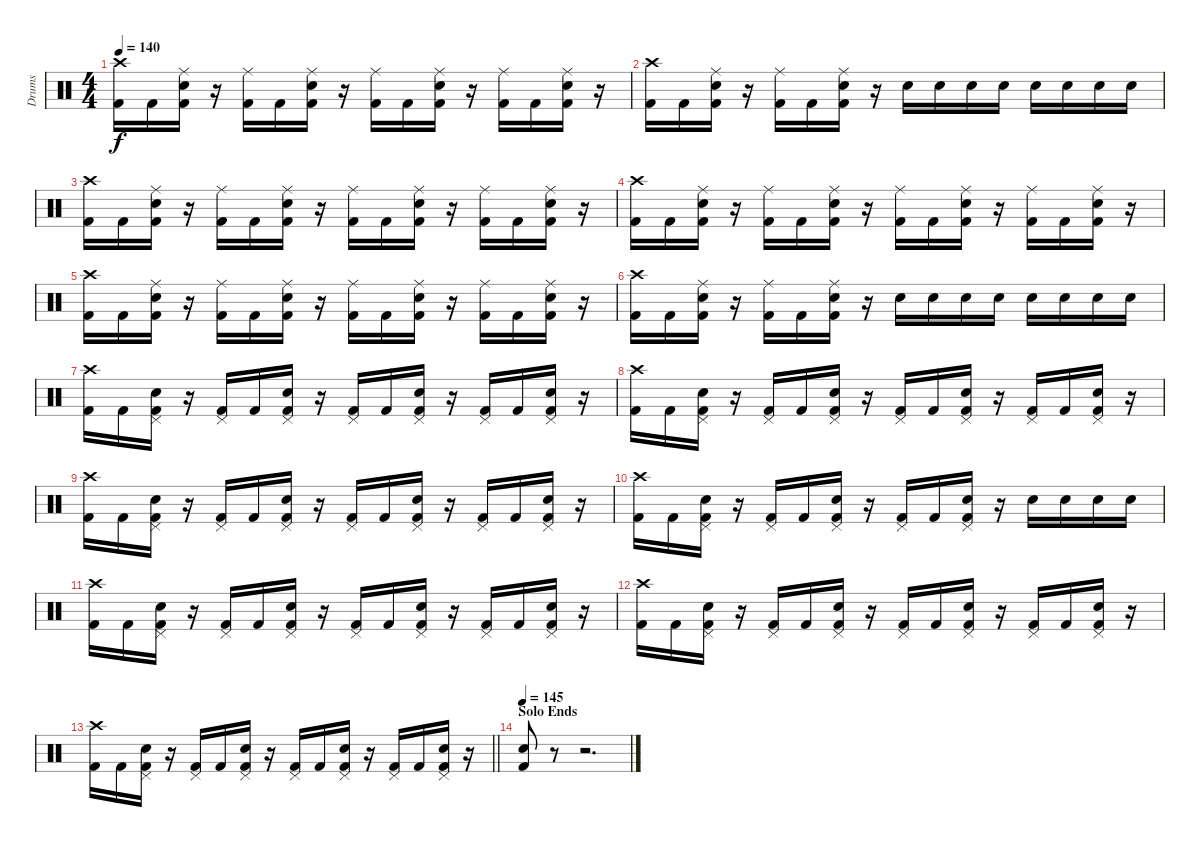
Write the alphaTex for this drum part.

\track ("Drums" "Drums") {instrument percussion}
\staff {score}
\articulation defaults
\ts (4 4)
\tempo 140
\clef neutral
\ks c
("Crash high (hit)" "Kick (hit) 2").16{dy f} "Kick (hit) 2".16 ("Ride (middle)" "Snare (hit) 2" "Kick (hit) 2").16 r.16 ("Ride (middle)" "Kick (hit) 2").16 "Kick (hit) 2".16 ("Ride (middle)" "Snare (hit) 2" "Kick (hit) 2").16 r.16 ("Ride (middle)" "Kick (hit) 2").16 "Kick (hit) 2".16 ("Ride (middle)" "Snare (hit) 2" "Kick (hit) 2").16 r.16 ("Ride (middle)" "Kick (hit) 2").16 "Kick (hit) 2".16 ("Ride (middle)" "Snare (hit) 2" "Kick (hit) 2").16 r.16 |
("Crash high (hit)" "Kick (hit) 2").16 "Kick (hit) 2".16 ("Ride (middle)" "Snare (hit) 2" "Kick (hit) 2").16 r.16 ("Ride (middle)" "Kick (hit) 2").16 "Kick (hit) 2".16 ("Ride (middle)" "Snare (hit) 2" "Kick (hit) 2").16 r.16 "Snare (hit) 2".16 "Snare (hit) 2".16 "Snare (hit) 2".16 "Snare (hit) 2".16 "Snare (hit) 2".16 "Snare (hit) 2".16 "Snare (hit) 2".16 "Snare (hit) 2".16 |
("Crash high (hit)" "Kick (hit) 2").16 "Kick (hit) 2".16 ("Ride (middle)" "Snare (hit) 2" "Kick (hit) 2").16 r.16 ("Ride (middle)" "Kick (hit) 2").16 "Kick (hit) 2".16 ("Ride (middle)" "Snare (hit) 2" "Kick (hit) 2").16 r.16 ("Ride (middle)" "Kick (hit) 2").16 "Kick (hit) 2".16 ("Ride (middle)" "Snare (hit) 2" "Kick (hit) 2").16 r.16 ("Ride (middle)" "Kick (hit) 2").16 "Kick (hit) 2".16 ("Ride (middle)" "Snare (hit) 2" "Kick (hit) 2").16 r.16 |
("Crash high (hit)" "Kick (hit) 2").16 "Kick (hit) 2".16 ("Ride (middle)" "Snare (hit) 2" "Kick (hit) 2").16 r.16 ("Ride (middle)" "Kick (hit) 2").16 "Kick (hit) 2".16 ("Ride (middle)" "Snare (hit) 2" "Kick (hit) 2").16 r.16 ("Ride (middle)" "Kick (hit) 2").16 "Kick (hit) 2".16 ("Ride (middle)" "Snare (hit) 2" "Kick (hit) 2").16 r.16 ("Ride (middle)" "Kick (hit) 2").16 "Kick (hit) 2".16 ("Ride (middle)" "Snare (hit) 2" "Kick (hit) 2").16 r.16 |
("Crash high (hit)" "Kick (hit) 2").16 "Kick (hit) 2".16 ("Ride (middle)" "Snare (hit) 2" "Kick (hit) 2").16 r.16 ("Ride (middle)" "Kick (hit) 2").16 "Kick (hit) 2".16 ("Ride (middle)" "Snare (hit) 2" "Kick (hit) 2").16 r.16 ("Ride (middle)" "Kick (hit) 2").16 "Kick (hit) 2".16 ("Ride (middle)" "Snare (hit) 2" "Kick (hit) 2").16 r.16 ("Ride (middle)" "Kick (hit) 2").16 "Kick (hit) 2".16 ("Ride (middle)" "Snare (hit) 2" "Kick (hit) 2").16 r.16 |
("Crash high (hit)" "Kick (hit) 2").16 "Kick (hit) 2".16 ("Ride (middle)" "Snare (hit) 2" "Kick (hit) 2").16 r.16 ("Ride (middle)" "Kick (hit) 2").16 "Kick (hit) 2".16 ("Ride (middle)" "Snare (hit) 2" "Kick (hit) 2").16 r.16 "Snare (hit) 2".16 "Snare (hit) 2".16 "Snare (hit) 2".16 "Snare (hit) 2".16 "Snare (hit) 2".16 "Snare (hit) 2".16 "Snare (hit) 2".16 "Snare (hit) 2".16 |
("Crash high (hit)" "Kick (hit) 2").16 "Kick (hit) 2".16 ("Pedal Hi-Hat (hit)" "Snare (hit) 2" "Kick (hit) 2").16 r.16 ("Pedal Hi-Hat (hit)" "Kick (hit) 2").16 "Kick (hit) 2".16 ("Pedal Hi-Hat (hit)" "Snare (hit) 2" "Kick (hit) 2").16 r.16 ("Pedal Hi-Hat (hit)" "Kick (hit) 2").16 "Kick (hit) 2".16 ("Pedal Hi-Hat (hit)" "Snare (hit) 2" "Kick (hit) 2").16 r.16 ("Pedal Hi-Hat (hit)" "Kick (hit) 2").16 "Kick (hit) 2".16 ("Pedal Hi-Hat (hit)" "Snare (hit) 2" "Kick (hit) 2").16 r.16 |
("Crash high (hit)" "Kick (hit) 2").16 "Kick (hit) 2".16 ("Pedal Hi-Hat (hit)" "Snare (hit) 2" "Kick (hit) 2").16 r.16 ("Pedal Hi-Hat (hit)" "Kick (hit) 2").16 "Kick (hit) 2".16 ("Pedal Hi-Hat (hit)" "Snare (hit) 2" "Kick (hit) 2").16 r.16 ("Pedal Hi-Hat (hit)" "Kick (hit) 2").16 "Kick (hit) 2".16 ("Pedal Hi-Hat (hit)" "Snare (hit) 2" "Kick (hit) 2").16 r.16 ("Pedal Hi-Hat (hit)" "Kick (hit) 2").16 "Kick (hit) 2".16 ("Pedal Hi-Hat (hit)" "Snare (hit) 2" "Kick (hit) 2").16 r.16 |
("Crash high (hit)" "Kick (hit) 2").16 "Kick (hit) 2".16 ("Pedal Hi-Hat (hit)" "Snare (hit) 2" "Kick (hit) 2").16 r.16 ("Pedal Hi-Hat (hit)" "Kick (hit) 2").16 "Kick (hit) 2".16 ("Pedal Hi-Hat (hit)" "Snare (hit) 2" "Kick (hit) 2").16 r.16 ("Pedal Hi-Hat (hit)" "Kick (hit) 2").16 "Kick (hit) 2".16 ("Pedal Hi-Hat (hit)" "Snare (hit) 2" "Kick (hit) 2").16 r.16 ("Pedal Hi-Hat (hit)" "Kick (hit) 2").16 "Kick (hit) 2".16 ("Pedal Hi-Hat (hit)" "Snare (hit) 2" "Kick (hit) 2").16 r.16 |
("Crash high (hit)" "Kick (hit) 2").16 "Kick (hit) 2".16 ("Pedal Hi-Hat (hit)" "Snare (hit) 2" "Kick (hit) 2").16 r.16 ("Pedal Hi-Hat (hit)" "Kick (hit) 2").16 "Kick (hit) 2".16 ("Pedal Hi-Hat (hit)" "Snare (hit) 2" "Kick (hit) 2").16 r.16 ("Pedal Hi-Hat (hit)" "Kick (hit) 2").16 "Kick (hit) 2".16 ("Pedal Hi-Hat (hit)" "Snare (hit) 2" "Kick (hit) 2").16 r.16 "Snare (hit) 2".16 "Snare (hit) 2".16 "Snare (hit) 2".16 "Snare (hit) 2".16 |
("Crash high (hit)" "Kick (hit) 2").16 "Kick (hit) 2".16 ("Pedal Hi-Hat (hit)" "Snare (hit) 2" "Kick (hit) 2").16 r.16 ("Pedal Hi-Hat (hit)" "Kick (hit) 2").16 "Kick (hit) 2".16 ("Pedal Hi-Hat (hit)" "Snare (hit) 2" "Kick (hit) 2").16 r.16 ("Pedal Hi-Hat (hit)" "Kick (hit) 2").16 "Kick (hit) 2".16 ("Pedal Hi-Hat (hit)" "Snare (hit) 2" "Kick (hit) 2").16 r.16 ("Pedal Hi-Hat (hit)" "Kick (hit) 2").16 "Kick (hit) 2".16 ("Pedal Hi-Hat (hit)" "Snare (hit) 2" "Kick (hit) 2").16 r.16 |
("Crash high (hit)" "Kick (hit) 2").16 "Kick (hit) 2".16 ("Pedal Hi-Hat (hit)" "Snare (hit) 2" "Kick (hit) 2").16 r.16 ("Pedal Hi-Hat (hit)" "Kick (hit) 2").16 "Kick (hit) 2".16 ("Pedal Hi-Hat (hit)" "Snare (hit) 2" "Kick (hit) 2").16 r.16 ("Pedal Hi-Hat (hit)" "Kick (hit) 2").16 "Kick (hit) 2".16 ("Pedal Hi-Hat (hit)" "Snare (hit) 2" "Kick (hit) 2").16 r.16 ("Pedal Hi-Hat (hit)" "Kick (hit) 2").16 "Kick (hit) 2".16 ("Pedal Hi-Hat (hit)" "Snare (hit) 2" "Kick (hit) 2").16 r.16 |
\barLineRight lightlight
("Crash high (hit)" "Kick (hit) 2").16 "Kick (hit) 2".16 ("Pedal Hi-Hat (hit)" "Snare (hit) 2" "Kick (hit) 2").16 r.16 ("Pedal Hi-Hat (hit)" "Kick (hit) 2").16 "Kick (hit) 2".16 ("Pedal Hi-Hat (hit)" "Snare (hit) 2" "Kick (hit) 2").16 r.16 ("Pedal Hi-Hat (hit)" "Kick (hit) 2").16 "Kick (hit) 2".16 ("Pedal Hi-Hat (hit)" "Snare (hit) 2" "Kick (hit) 2").16 r.16 ("Pedal Hi-Hat (hit)" "Kick (hit) 2").16 "Kick (hit) 2".16 ("Pedal Hi-Hat (hit)" "Snare (hit) 2" "Kick (hit) 2").16 r.16 |
\section ("" "Solo Ends")
\tempo 145
("Snare (hit) 2" "Kick (hit) 2").8 r.8 r.2{d}
